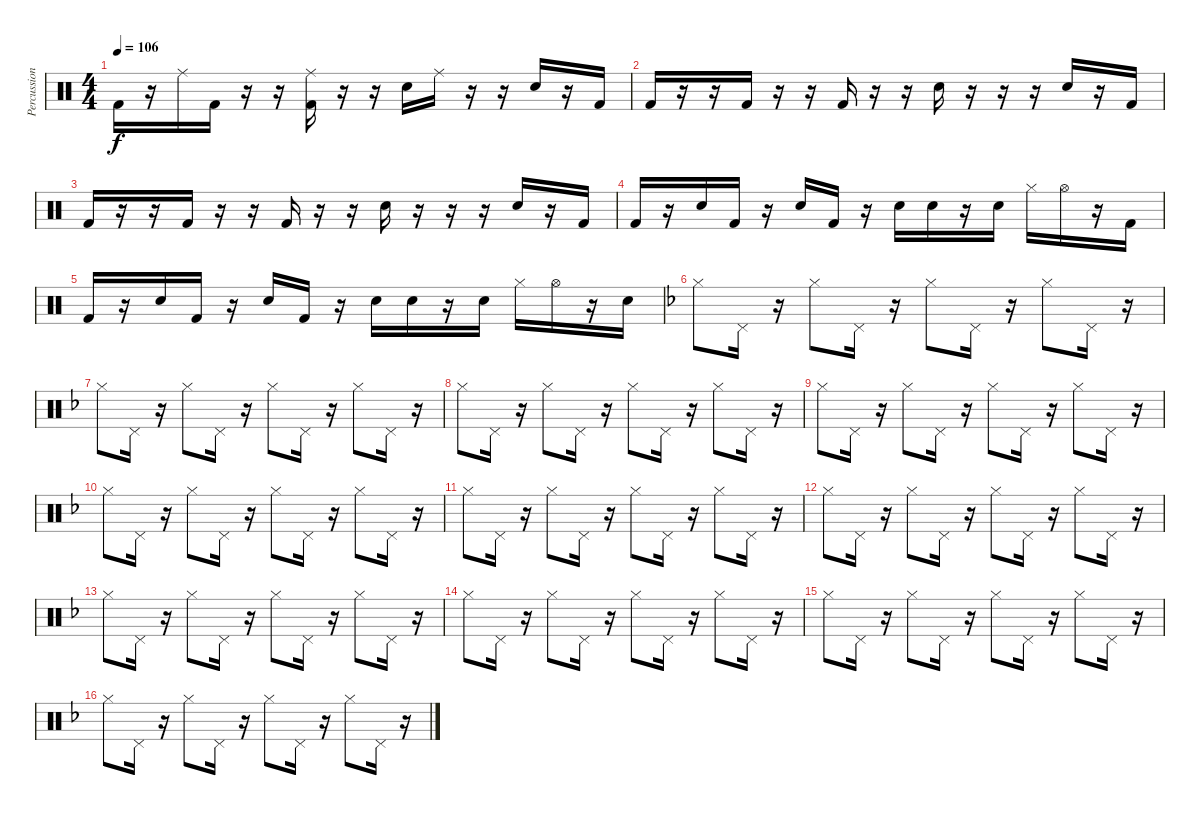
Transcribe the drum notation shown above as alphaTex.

\track ("Percussions" "Percussion") {instrument percussion}
\staff {score}
\articulation defaults
\ts (4 4)
\tempo 106
\clef neutral
\ks c "Kick (hit) 2".16{dy f}
r.16 "Ride (middle)".16 "Kick (hit) 2".16 r.16 r.16 ("Ride (middle)" "Kick (hit) 2").16 r.16 r.16 "Electric Snare (hit)".16 "Ride (middle)".16 r.16 r.16 "Electric Snare (hit)".16 r.16 "Kick (hit) 2".16 |
"Kick (hit) 2".16 r.16 r.16 "Kick (hit) 2".16 r.16 r.16 "Kick (hit) 2".16 r.16 r.16 "Electric Snare (hit)".16 r.16 r.16 r.16 "Electric Snare (hit)".16 r.16 "Kick (hit) 2".16 |
"Kick (hit) 2".16 r.16 r.16 "Kick (hit) 2".16 r.16 r.16 "Kick (hit) 2".16 r.16 r.16 "Electric Snare (hit)".16 r.16 r.16 r.16 "Electric Snare (hit)".16 r.16 "Kick (hit) 2".16 |
"Kick (hit) 2".16 r.16 "Electric Snare (hit)".16 "Kick (hit) 2".16 r.16 "Electric Snare (hit)".16 "Kick (hit) 2".16 r.16 "Electric Snare (hit)".16 "Electric Snare (hit)".16 r.16 "Electric Snare (hit)".16 "Hi-Hat (closed)".16 "Hi-Hat (open)".16 r.16 "Kick (hit) 2".16 |
"Kick (hit) 2".16 r.16 "Electric Snare (hit)".16 "Kick (hit) 2".16 r.16 "Electric Snare (hit)".16 "Kick (hit) 2".16 r.16 "Electric Snare (hit)".16 "Electric Snare (hit)".16 r.16 "Electric Snare (hit)".16 "Hi-Hat (closed)".16 "Hi-Hat (open)".16 r.16 "Electric Snare (hit)".16 |
\ks f "Hi-Hat (closed)".8 "Pedal Hi-Hat (hit)".16
r.16 "Hi-Hat (closed)".8 "Pedal Hi-Hat (hit)".16 r.16 "Hi-Hat (closed)".8 "Pedal Hi-Hat (hit)".16 r.16 "Hi-Hat (closed)".8 "Pedal Hi-Hat (hit)".16 r.16 |
"Hi-Hat (closed)".8 "Pedal Hi-Hat (hit)".16 r.16 "Hi-Hat (closed)".8 "Pedal Hi-Hat (hit)".16 r.16 "Hi-Hat (closed)".8 "Pedal Hi-Hat (hit)".16 r.16 "Hi-Hat (closed)".8 "Pedal Hi-Hat (hit)".16 r.16 |
"Hi-Hat (closed)".8 "Pedal Hi-Hat (hit)".16 r.16 "Hi-Hat (closed)".8 "Pedal Hi-Hat (hit)".16 r.16 "Hi-Hat (closed)".8 "Pedal Hi-Hat (hit)".16 r.16 "Hi-Hat (closed)".8 "Pedal Hi-Hat (hit)".16 r.16 |
"Hi-Hat (closed)".8 "Pedal Hi-Hat (hit)".16 r.16 "Hi-Hat (closed)".8 "Pedal Hi-Hat (hit)".16 r.16 "Hi-Hat (closed)".8 "Pedal Hi-Hat (hit)".16 r.16 "Hi-Hat (closed)".8 "Pedal Hi-Hat (hit)".16 r.16 |
"Hi-Hat (closed)".8 "Pedal Hi-Hat (hit)".16 r.16 "Hi-Hat (closed)".8 "Pedal Hi-Hat (hit)".16 r.16 "Hi-Hat (closed)".8 "Pedal Hi-Hat (hit)".16 r.16 "Hi-Hat (closed)".8 "Pedal Hi-Hat (hit)".16 r.16 |
"Hi-Hat (closed)".8 "Pedal Hi-Hat (hit)".16 r.16 "Hi-Hat (closed)".8 "Pedal Hi-Hat (hit)".16 r.16 "Hi-Hat (closed)".8 "Pedal Hi-Hat (hit)".16 r.16 "Hi-Hat (closed)".8 "Pedal Hi-Hat (hit)".16 r.16 |
"Hi-Hat (closed)".8 "Pedal Hi-Hat (hit)".16 r.16 "Hi-Hat (closed)".8 "Pedal Hi-Hat (hit)".16 r.16 "Hi-Hat (closed)".8 "Pedal Hi-Hat (hit)".16 r.16 "Hi-Hat (closed)".8 "Pedal Hi-Hat (hit)".16 r.16 |
"Hi-Hat (closed)".8 "Pedal Hi-Hat (hit)".16 r.16 "Hi-Hat (closed)".8 "Pedal Hi-Hat (hit)".16 r.16 "Hi-Hat (closed)".8 "Pedal Hi-Hat (hit)".16 r.16 "Hi-Hat (closed)".8 "Pedal Hi-Hat (hit)".16 r.16 |
"Hi-Hat (closed)".8 "Pedal Hi-Hat (hit)".16 r.16 "Hi-Hat (closed)".8 "Pedal Hi-Hat (hit)".16 r.16 "Hi-Hat (closed)".8 "Pedal Hi-Hat (hit)".16 r.16 "Hi-Hat (closed)".8 "Pedal Hi-Hat (hit)".16 r.16 |
"Hi-Hat (closed)".8 "Pedal Hi-Hat (hit)".16 r.16 "Hi-Hat (closed)".8 "Pedal Hi-Hat (hit)".16 r.16 "Hi-Hat (closed)".8 "Pedal Hi-Hat (hit)".16 r.16 "Hi-Hat (closed)".8 "Pedal Hi-Hat (hit)".16 r.16 |
"Hi-Hat (closed)".8 "Pedal Hi-Hat (hit)".16 r.16 "Hi-Hat (closed)".8 "Pedal Hi-Hat (hit)".16 r.16 "Hi-Hat (closed)".8 "Pedal Hi-Hat (hit)".16 r.16 "Hi-Hat (closed)".8 "Pedal Hi-Hat (hit)".16 r.16
